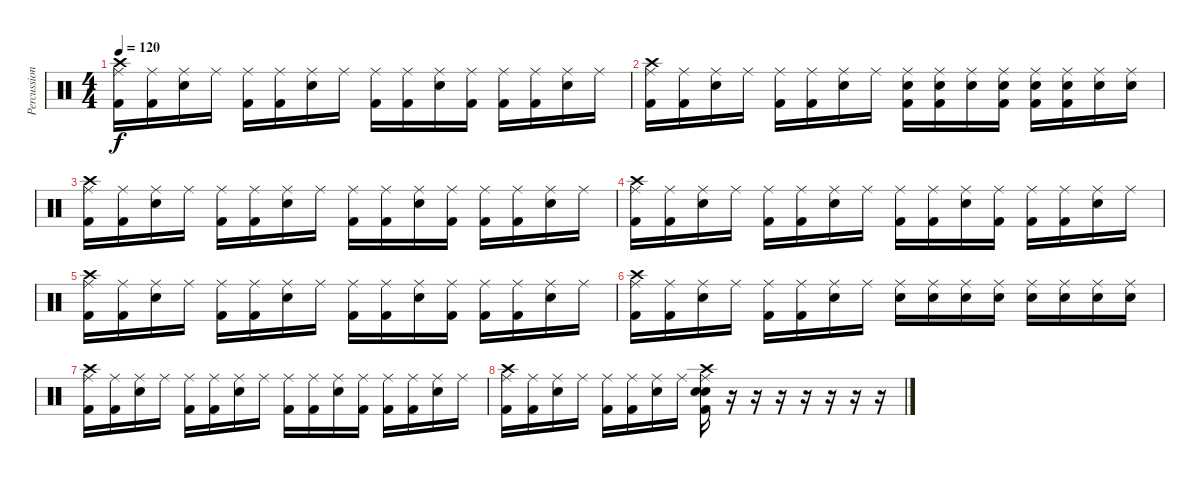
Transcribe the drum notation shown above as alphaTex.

\track ("Percussions" "Percussion") {instrument percussion}
\staff {score}
\articulation defaults
\ts (4 4)
\tempo 120
\clef neutral
\ks c
("Ride (middle)" "Crash high (hit)" "Kick (hit) 2").16{dy f} ("Ride (middle)" "Kick (hit) 2").16 ("Ride (middle)" "Electric Snare (hit)").16 "Ride (middle)".16 ("Ride (middle)" "Kick (hit) 2").16 ("Ride (middle)" "Kick (hit) 2").16 ("Ride (middle)" "Electric Snare (hit)").16 "Ride (middle)".16 ("Ride (middle)" "Kick (hit) 2").16 ("Ride (middle)" "Kick (hit) 2").16 ("Ride (middle)" "Electric Snare (hit)").16 ("Ride (middle)" "Kick (hit) 2").16 ("Ride (middle)" "Kick (hit) 2").16 ("Ride (middle)" "Kick (hit) 2").16 ("Ride (middle)" "Electric Snare (hit)").16 "Ride (middle)".16 |
("Ride (middle)" "Crash high (hit)" "Kick (hit) 2").16 ("Ride (middle)" "Kick (hit) 2").16 ("Ride (middle)" "Electric Snare (hit)").16 "Ride (middle)".16 ("Ride (middle)" "Kick (hit) 2").16 ("Ride (middle)" "Kick (hit) 2").16 ("Ride (middle)" "Electric Snare (hit)").16 "Ride (middle)".16 ("Ride (middle)" "Electric Snare (hit)" "Kick (hit) 2").16 ("Ride (middle)" "Electric Snare (hit)" "Kick (hit) 2").16 ("Ride (middle)" "Electric Snare (hit)").16 ("Ride (middle)" "Electric Snare (hit)" "Kick (hit) 2").16 ("Ride (middle)" "Electric Snare (hit)" "Kick (hit) 2").16 ("Ride (middle)" "Electric Snare (hit)" "Kick (hit) 2").16 ("Ride (middle)" "Electric Snare (hit)").16 ("Ride (middle)" "Electric Snare (hit)").16 |
("Ride (middle)" "Crash high (hit)" "Kick (hit) 2").16 ("Ride (middle)" "Kick (hit) 2").16 ("Ride (middle)" "Electric Snare (hit)").16 "Ride (middle)".16 ("Ride (middle)" "Kick (hit) 2").16 ("Ride (middle)" "Kick (hit) 2").16 ("Ride (middle)" "Electric Snare (hit)").16 "Ride (middle)".16 ("Ride (middle)" "Kick (hit) 2").16 ("Ride (middle)" "Kick (hit) 2").16 ("Ride (middle)" "Electric Snare (hit)").16 ("Ride (middle)" "Kick (hit) 2").16 ("Ride (middle)" "Kick (hit) 2").16 ("Ride (middle)" "Kick (hit) 2").16 ("Ride (middle)" "Electric Snare (hit)").16 "Ride (middle)".16 |
("Ride (middle)" "Crash high (hit)" "Kick (hit) 2").16 ("Ride (middle)" "Kick (hit) 2").16 ("Ride (middle)" "Electric Snare (hit)").16 "Ride (middle)".16 ("Ride (middle)" "Kick (hit) 2").16 ("Ride (middle)" "Kick (hit) 2").16 ("Ride (middle)" "Electric Snare (hit)").16 "Ride (middle)".16 ("Ride (middle)" "Kick (hit) 2").16 ("Ride (middle)" "Kick (hit) 2").16 ("Ride (middle)" "Electric Snare (hit)").16 ("Ride (middle)" "Kick (hit) 2").16 ("Ride (middle)" "Kick (hit) 2").16 ("Ride (middle)" "Kick (hit) 2").16 ("Ride (middle)" "Electric Snare (hit)").16 "Ride (middle)".16 |
("Ride (middle)" "Crash high (hit)" "Kick (hit) 2").16 ("Ride (middle)" "Kick (hit) 2").16 ("Ride (middle)" "Electric Snare (hit)").16 "Ride (middle)".16 ("Ride (middle)" "Kick (hit) 2").16 ("Ride (middle)" "Kick (hit) 2").16 ("Ride (middle)" "Electric Snare (hit)").16 "Ride (middle)".16 ("Ride (middle)" "Kick (hit) 2").16 ("Ride (middle)" "Kick (hit) 2").16 ("Ride (middle)" "Electric Snare (hit)").16 ("Ride (middle)" "Kick (hit) 2").16 ("Ride (middle)" "Kick (hit) 2").16 ("Ride (middle)" "Kick (hit) 2").16 ("Ride (middle)" "Electric Snare (hit)").16 "Ride (middle)".16 |
("Ride (middle)" "Crash high (hit)" "Kick (hit) 2").16 ("Ride (middle)" "Kick (hit) 2").16 ("Ride (middle)" "Electric Snare (hit)").16 "Ride (middle)".16 ("Ride (middle)" "Kick (hit) 2").16 ("Ride (middle)" "Kick (hit) 2").16 ("Ride (middle)" "Electric Snare (hit)").16 "Ride (middle)".16 ("Ride (middle)" "Electric Snare (hit)").16 ("Ride (middle)" "Electric Snare (hit)").16 ("Ride (middle)" "Electric Snare (hit)").16 ("Ride (middle)" "Electric Snare (hit)").16 ("Ride (middle)" "Electric Snare (hit)").16 ("Ride (middle)" "Electric Snare (hit)").16 ("Ride (middle)" "Electric Snare (hit)").16 ("Ride (middle)" "Electric Snare (hit)").16 |
("Ride (middle)" "Crash high (hit)" "Kick (hit) 2").16 ("Ride (middle)" "Kick (hit) 2").16 ("Ride (middle)" "Electric Snare (hit)").16 "Ride (middle)".16 ("Ride (middle)" "Kick (hit) 2").16 ("Ride (middle)" "Kick (hit) 2").16 ("Ride (middle)" "Electric Snare (hit)").16 "Ride (middle)".16 ("Ride (middle)" "Kick (hit) 2").16 ("Ride (middle)" "Kick (hit) 2").16 ("Ride (middle)" "Electric Snare (hit)").16 ("Ride (middle)" "Kick (hit) 2").16 ("Ride (middle)" "Kick (hit) 2").16 ("Ride (middle)" "Kick (hit) 2").16 ("Ride (middle)" "Electric Snare (hit)").16 "Ride (middle)".16 |
("Ride (middle)" "Crash high (hit)" "Kick (hit) 2").16 ("Ride (middle)" "Kick (hit) 2").16 ("Ride (middle)" "Electric Snare (hit)").16 "Ride (middle)".16 ("Ride (middle)" "Kick (hit) 2").16 ("Ride (middle)" "Kick (hit) 2").16 ("Ride (middle)" "Electric Snare (hit)").16 "Ride (middle)".16 ("Ride (middle)" "Crash high (hit)" "Electric Snare (hit)" "Snare (hit) 2" "Kick (hit) 2").16 r.16 r.16 r.16 r.16 r.16 r.16 r.16
